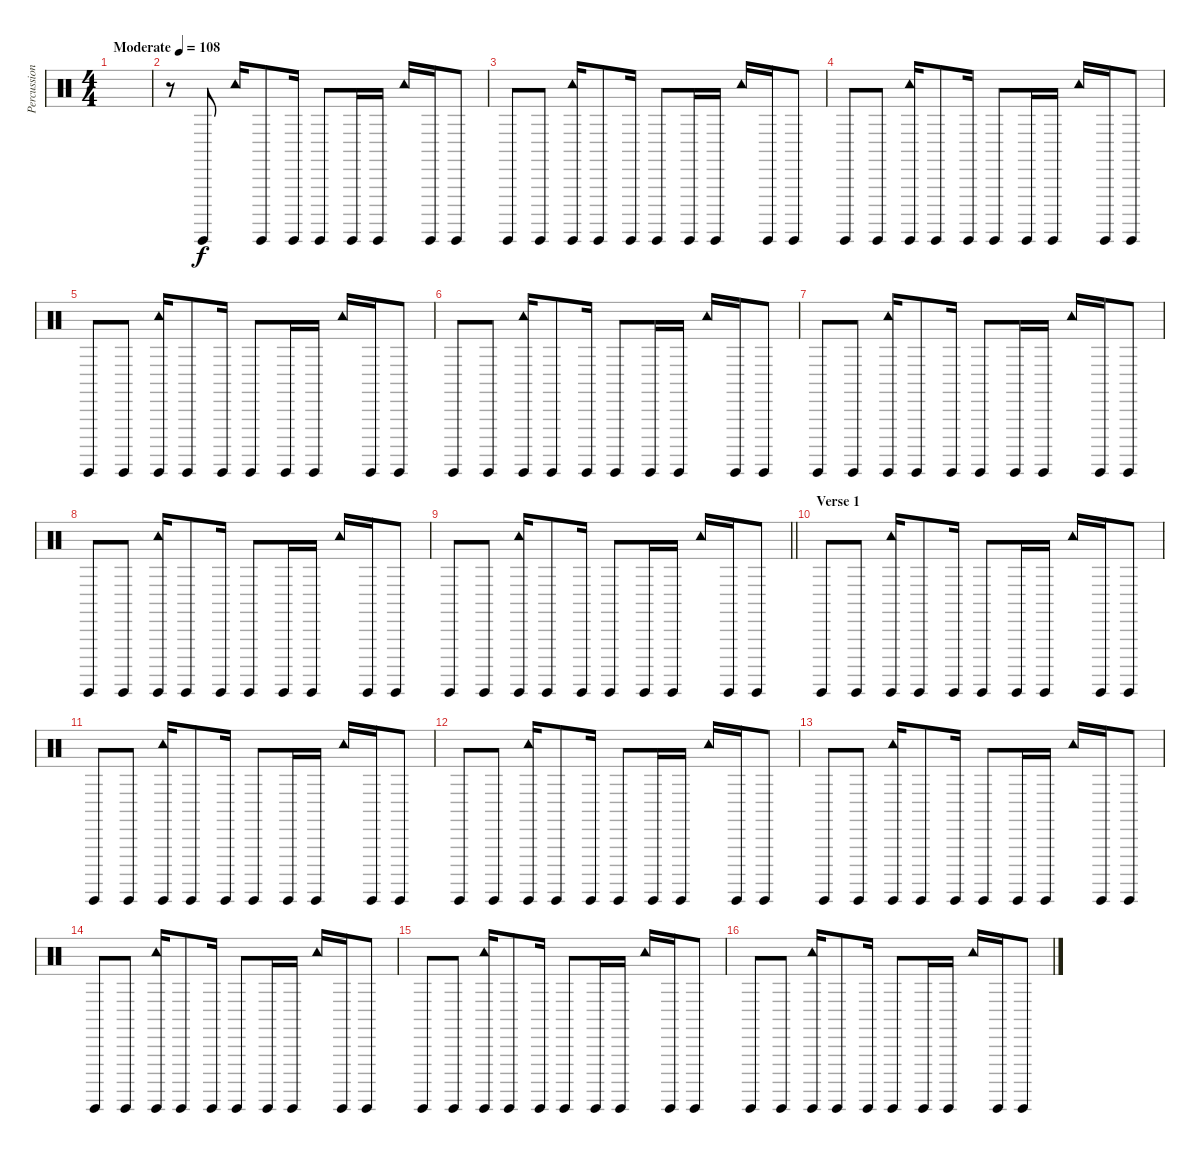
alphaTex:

\track ("Percussion (Chad Smith)" "Percussion") {instrument percussion}
\staff {score}
\articulation defaults
\ts (4 4)
\tempo (108 "Moderate")
\clef neutral
\ks c
|
r.8 "Guiro (hit)".8 "Tambourine (hit)".16 "Guiro (hit)".8 "Guiro (hit)".16 "Guiro (hit)".8 "Guiro (hit)".16 "Guiro (hit)".16 "Tambourine (hit)".16 "Guiro (hit)".16 "Guiro (hit)".8 |
"Guiro (hit)".8 "Guiro (hit)".8 ("Guiro (hit)" "Tambourine (hit)").16 "Guiro (hit)".8 "Guiro (hit)".16 "Guiro (hit)".8 "Guiro (hit)".16 "Guiro (hit)".16 "Tambourine (hit)".16 "Guiro (hit)".16 "Guiro (hit)".8 |
"Guiro (hit)".8 "Guiro (hit)".8 ("Guiro (hit)" "Tambourine (hit)").16 "Guiro (hit)".8 "Guiro (hit)".16 "Guiro (hit)".8 "Guiro (hit)".16 "Guiro (hit)".16 "Tambourine (hit)".16 "Guiro (hit)".16 "Guiro (hit)".8 |
"Guiro (hit)".8 "Guiro (hit)".8 ("Guiro (hit)" "Tambourine (hit)").16 "Guiro (hit)".8 "Guiro (hit)".16 "Guiro (hit)".8 "Guiro (hit)".16 "Guiro (hit)".16 "Tambourine (hit)".16 "Guiro (hit)".16 "Guiro (hit)".8 |
"Guiro (hit)".8 "Guiro (hit)".8 ("Guiro (hit)" "Tambourine (hit)").16 "Guiro (hit)".8 "Guiro (hit)".16 "Guiro (hit)".8 "Guiro (hit)".16 "Guiro (hit)".16 "Tambourine (hit)".16 "Guiro (hit)".16 "Guiro (hit)".8 |
"Guiro (hit)".8 "Guiro (hit)".8 ("Guiro (hit)" "Tambourine (hit)").16 "Guiro (hit)".8 "Guiro (hit)".16 "Guiro (hit)".8 "Guiro (hit)".16 "Guiro (hit)".16 "Tambourine (hit)".16 "Guiro (hit)".16 "Guiro (hit)".8 |
"Guiro (hit)".8 "Guiro (hit)".8 ("Guiro (hit)" "Tambourine (hit)").16 "Guiro (hit)".8 "Guiro (hit)".16 "Guiro (hit)".8 "Guiro (hit)".16 "Guiro (hit)".16 "Tambourine (hit)".16 "Guiro (hit)".16 "Guiro (hit)".8 |
\barLineRight lightlight "Guiro (hit)".8 "Guiro (hit)".8
("Guiro (hit)" "Tambourine (hit)").16 "Guiro (hit)".8 "Guiro (hit)".16 "Guiro (hit)".8 "Guiro (hit)".16 "Guiro (hit)".16 "Tambourine (hit)".16 "Guiro (hit)".16 "Guiro (hit)".8 |
\section ("" "Verse 1")
"Guiro (hit)".8 "Guiro (hit)".8 ("Guiro (hit)" "Tambourine (hit)").16 "Guiro (hit)".8 "Guiro (hit)".16 "Guiro (hit)".8 "Guiro (hit)".16 "Guiro (hit)".16 "Tambourine (hit)".16 "Guiro (hit)".16 "Guiro (hit)".8 |
"Guiro (hit)".8 "Guiro (hit)".8 ("Guiro (hit)" "Tambourine (hit)").16 "Guiro (hit)".8 "Guiro (hit)".16 "Guiro (hit)".8 "Guiro (hit)".16 "Guiro (hit)".16 "Tambourine (hit)".16 "Guiro (hit)".16 "Guiro (hit)".8 |
"Guiro (hit)".8 "Guiro (hit)".8 ("Guiro (hit)" "Tambourine (hit)").16 "Guiro (hit)".8 "Guiro (hit)".16 "Guiro (hit)".8 "Guiro (hit)".16 "Guiro (hit)".16 "Tambourine (hit)".16 "Guiro (hit)".16 "Guiro (hit)".8 |
"Guiro (hit)".8 "Guiro (hit)".8 ("Guiro (hit)" "Tambourine (hit)").16 "Guiro (hit)".8 "Guiro (hit)".16 "Guiro (hit)".8 "Guiro (hit)".16 "Guiro (hit)".16 "Tambourine (hit)".16 "Guiro (hit)".16 "Guiro (hit)".8 |
"Guiro (hit)".8 "Guiro (hit)".8 ("Guiro (hit)" "Tambourine (hit)").16 "Guiro (hit)".8 "Guiro (hit)".16 "Guiro (hit)".8 "Guiro (hit)".16 "Guiro (hit)".16 "Tambourine (hit)".16 "Guiro (hit)".16 "Guiro (hit)".8 |
"Guiro (hit)".8 "Guiro (hit)".8 ("Guiro (hit)" "Tambourine (hit)").16 "Guiro (hit)".8 "Guiro (hit)".16 "Guiro (hit)".8 "Guiro (hit)".16 "Guiro (hit)".16 "Tambourine (hit)".16 "Guiro (hit)".16 "Guiro (hit)".8 |
"Guiro (hit)".8 "Guiro (hit)".8 ("Guiro (hit)" "Tambourine (hit)").16 "Guiro (hit)".8 "Guiro (hit)".16 "Guiro (hit)".8 "Guiro (hit)".16 "Guiro (hit)".16 "Tambourine (hit)".16 "Guiro (hit)".16 "Guiro (hit)".8
